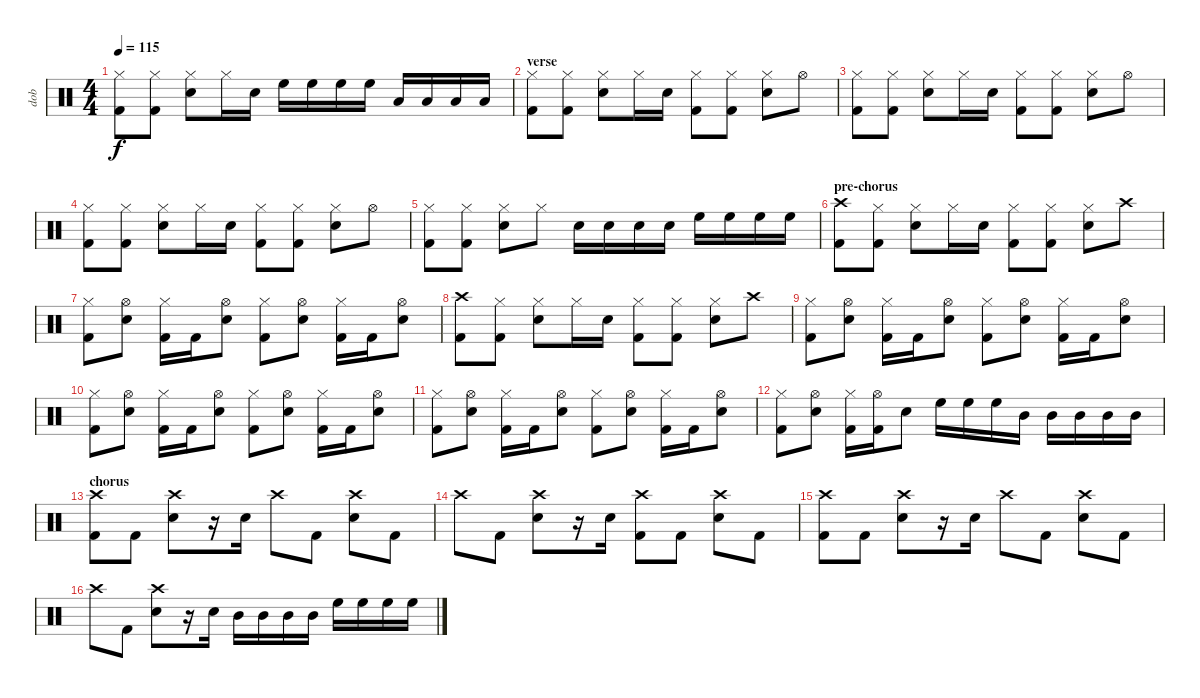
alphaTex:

\track ("dob" "dob") {instrument percussion}
\staff {score}
\articulation defaults
\ts (4 4)
\tempo 115
\clef neutral
\ks c
("Hi-Hat (closed)" "Kick (hit) 2").8{dy f} ("Hi-Hat (closed)" "Kick (hit) 2").8 ("Hi-Hat (closed)" "Snare (hit) 2").8 "Hi-Hat (closed)".16 "Snare (hit) 2".16 "High Floor Tom (hit)".16 "High Floor Tom (hit)".16 "High Floor Tom (hit)".16 "High Floor Tom (hit)".16 "Low Tom (hit)".16 "Low Tom (hit)".16 "Low Tom (hit)".16 "Low Tom (hit)".16 |
\section ("" "verse")
("Hi-Hat (closed)" "Kick (hit) 2").8 ("Hi-Hat (closed)" "Kick (hit) 2").8 ("Hi-Hat (closed)" "Snare (hit) 2").8 "Hi-Hat (closed)".16 "Snare (hit) 2".16 ("Hi-Hat (closed)" "Kick (hit) 2").8 ("Hi-Hat (closed)" "Kick (hit) 2").8 ("Hi-Hat (closed)" "Snare (hit) 2").8 "Hi-Hat (open)".8 |
("Hi-Hat (closed)" "Kick (hit) 2").8 ("Hi-Hat (closed)" "Kick (hit) 2").8 ("Hi-Hat (closed)" "Snare (hit) 2").8 "Hi-Hat (closed)".16 "Snare (hit) 2".16 ("Hi-Hat (closed)" "Kick (hit) 2").8 ("Hi-Hat (closed)" "Kick (hit) 2").8 ("Hi-Hat (closed)" "Snare (hit) 2").8 "Hi-Hat (open)".8 |
("Hi-Hat (closed)" "Kick (hit) 2").8 ("Hi-Hat (closed)" "Kick (hit) 2").8 ("Hi-Hat (closed)" "Snare (hit) 2").8 "Hi-Hat (closed)".16 "Snare (hit) 2".16 ("Hi-Hat (closed)" "Kick (hit) 2").8 ("Hi-Hat (closed)" "Kick (hit) 2").8 ("Hi-Hat (closed)" "Snare (hit) 2").8 "Hi-Hat (open)".8 |
("Hi-Hat (closed)" "Kick (hit) 2").8 ("Hi-Hat (closed)" "Kick (hit) 2").8 ("Hi-Hat (closed)" "Snare (hit) 2").8 "Hi-Hat (closed)".8 "Snare (hit) 2".16 "Snare (hit) 2".16 "Snare (hit) 2".16 "Snare (hit) 2".16 "High Floor Tom (hit)".16 "High Floor Tom (hit)".16 "High Floor Tom (hit)".16 "High Floor Tom (hit)".16 |
\section ("" "pre-chorus")
("Crash high (hit)" "Kick (hit) 2").8 ("Hi-Hat (closed)" "Kick (hit) 2").8 ("Hi-Hat (closed)" "Snare (hit) 2").8 "Hi-Hat (closed)".16 "Snare (hit) 2".16 ("Hi-Hat (closed)" "Kick (hit) 2").8 ("Hi-Hat (closed)" "Kick (hit) 2").8 ("Hi-Hat (closed)" "Snare (hit) 2").8 "Crash high (hit)".8 |
("Hi-Hat (closed)" "Kick (hit) 2").8 ("Hi-Hat (open)" "Snare (hit) 2").8 ("Hi-Hat (closed)" "Kick (hit) 2").16 "Kick (hit) 2".16 ("Hi-Hat (open)" "Snare (hit) 2").8 ("Hi-Hat (closed)" "Kick (hit) 2").8 ("Hi-Hat (open)" "Snare (hit) 2").8 ("Hi-Hat (closed)" "Kick (hit) 2").16 "Kick (hit) 2".16 ("Hi-Hat (open)" "Snare (hit) 2").8 |
("Crash high (hit)" "Kick (hit) 2").8 ("Hi-Hat (closed)" "Kick (hit) 2").8 ("Hi-Hat (closed)" "Snare (hit) 2").8 "Hi-Hat (closed)".16 "Snare (hit) 2".16 ("Hi-Hat (closed)" "Kick (hit) 2").8 ("Hi-Hat (closed)" "Kick (hit) 2").8 ("Hi-Hat (closed)" "Snare (hit) 2").8 "Crash high (hit)".8 |
("Hi-Hat (closed)" "Kick (hit) 2").8 ("Hi-Hat (open)" "Snare (hit) 2").8 ("Hi-Hat (closed)" "Kick (hit) 2").16 "Kick (hit) 2".16 ("Hi-Hat (open)" "Snare (hit) 2").8 ("Hi-Hat (closed)" "Kick (hit) 2").8 ("Hi-Hat (open)" "Snare (hit) 2").8 ("Hi-Hat (closed)" "Kick (hit) 2").16 "Kick (hit) 2".16 ("Hi-Hat (open)" "Snare (hit) 2").8 |
("Hi-Hat (closed)" "Kick (hit) 2").8 ("Hi-Hat (open)" "Snare (hit) 2").8 ("Hi-Hat (closed)" "Kick (hit) 2").16 "Kick (hit) 2".16 ("Hi-Hat (open)" "Snare (hit) 2").8 ("Hi-Hat (closed)" "Kick (hit) 2").8 ("Hi-Hat (open)" "Snare (hit) 2").8 ("Hi-Hat (closed)" "Kick (hit) 2").16 "Kick (hit) 2".16 ("Hi-Hat (open)" "Snare (hit) 2").8 |
("Hi-Hat (closed)" "Kick (hit) 2").8 ("Hi-Hat (open)" "Snare (hit) 2").8 ("Hi-Hat (closed)" "Kick (hit) 2").16 "Kick (hit) 2".16 ("Hi-Hat (open)" "Snare (hit) 2").8 ("Hi-Hat (closed)" "Kick (hit) 2").8 ("Hi-Hat (open)" "Snare (hit) 2").8 ("Hi-Hat (closed)" "Kick (hit) 2").16 "Kick (hit) 2".16 ("Hi-Hat (open)" "Snare (hit) 2").8 |
("Hi-Hat (closed)" "Kick (hit) 2").8 ("Hi-Hat (open)" "Snare (hit) 2").8 ("Hi-Hat (closed)" "Kick (hit) 2").16 ("Hi-Hat (open)" "Kick (hit) 2").16 "Snare (hit) 2".8 "High Floor Tom (hit)".16 "High Floor Tom (hit)".16 "High Floor Tom (hit)".16 "Mid Tom (hit)".16 "Mid Tom (hit)".16 "Mid Tom (hit)".16 "Mid Tom (hit)".16 "Mid Tom (hit)".16 |
\section ("" "chorus")
("Crash high (hit)" "Kick (hit) 2").8 "Kick (hit) 2".8 ("Crash high (hit)" "Snare (hit) 2").8 r.16 "Snare (hit) 2".16 "Crash high (hit)".8 "Kick (hit) 2".8 ("Crash high (hit)" "Snare (hit) 2").8 "Kick (hit) 2".8 |
"Crash high (hit)".8 "Kick (hit) 2".8 ("Crash high (hit)" "Snare (hit) 2").8 r.16 "Snare (hit) 2".16 ("Crash high (hit)" "Kick (hit) 2").8 "Kick (hit) 2".8 ("Crash high (hit)" "Snare (hit) 2").8 "Kick (hit) 2".8 |
("Crash high (hit)" "Kick (hit) 2").8 "Kick (hit) 2".8 ("Crash high (hit)" "Snare (hit) 2").8 r.16 "Snare (hit) 2".16 "Crash high (hit)".8 "Kick (hit) 2".8 ("Crash high (hit)" "Snare (hit) 2").8 "Kick (hit) 2".8 |
"Crash high (hit)".8 "Kick (hit) 2".8 ("Crash high (hit)" "Snare (hit) 2").8 r.16 "Snare (hit) 2".16 "Mid Tom (hit)".16 "Mid Tom (hit)".16 "Mid Tom (hit)".16 "Mid Tom (hit)".16 "High Floor Tom (hit)".16 "High Floor Tom (hit)".16 "High Floor Tom (hit)".16 "High Floor Tom (hit)".16
